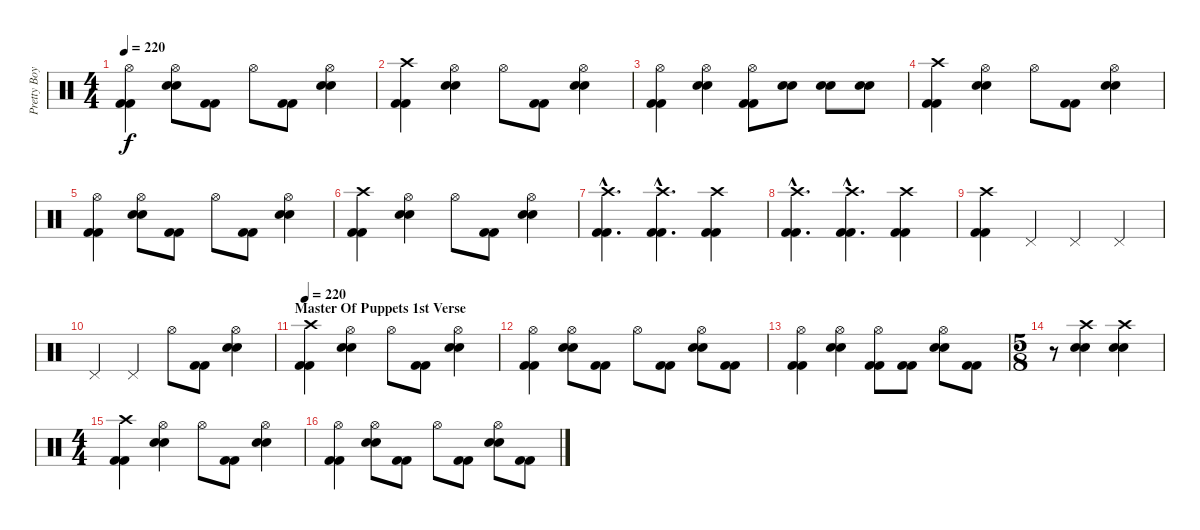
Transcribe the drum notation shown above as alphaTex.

\track ("Pretty Boy Geoff (Lars Drums)" "Pretty Boy") {instrument percussion}
\staff {score}
\articulation defaults
\ts (4 4)
\tempo 220
\clef neutral
\ks c
("Hi-Hat (open)" "Kick (hit) 2" "Kick (hit) 2").4{dy f} ("Hi-Hat (open)" "Electric Snare (hit)" "Electric Snare (hit)").8 ("Kick (hit) 2" "Kick (hit) 2").8 "Hi-Hat (open)".8 ("Kick (hit) 2" "Kick (hit) 2").8 ("Hi-Hat (open)" "Electric Snare (hit)" "Electric Snare (hit)").4 |
("Crash high (hit)" "Kick (hit) 2" "Kick (hit) 2").4 ("Hi-Hat (open)" "Electric Snare (hit)" "Electric Snare (hit)").4 "Hi-Hat (open)".8 ("Kick (hit) 2" "Kick (hit) 2").8 ("Hi-Hat (open)" "Electric Snare (hit)" "Electric Snare (hit)").4 |
("Hi-Hat (open)" "Kick (hit) 2" "Kick (hit) 2").4 ("Hi-Hat (open)" "Electric Snare (hit)" "Electric Snare (hit)").4 ("Hi-Hat (open)" "Kick (hit) 2" "Kick (hit) 2").8 ("Electric Snare (hit)" "Electric Snare (hit)").8 ("Electric Snare (hit)" "Electric Snare (hit)").8 ("Electric Snare (hit)" "Electric Snare (hit)").8 |
("Crash high (hit)" "Kick (hit) 2" "Kick (hit) 2").4 ("Hi-Hat (open)" "Electric Snare (hit)" "Electric Snare (hit)").4 "Hi-Hat (open)".8 ("Kick (hit) 2" "Kick (hit) 2").8 ("Hi-Hat (open)" "Electric Snare (hit)" "Electric Snare (hit)").4 |
("Hi-Hat (open)" "Kick (hit) 2" "Kick (hit) 2").4 ("Hi-Hat (open)" "Electric Snare (hit)" "Electric Snare (hit)").8 ("Kick (hit) 2" "Kick (hit) 2").8 "Hi-Hat (open)".8 ("Kick (hit) 2" "Kick (hit) 2").8 ("Hi-Hat (open)" "Electric Snare (hit)" "Electric Snare (hit)").4 |
("Crash high (hit)" "Kick (hit) 2" "Kick (hit) 2").4 ("Hi-Hat (open)" "Electric Snare (hit)" "Electric Snare (hit)").4 "Hi-Hat (open)".8 ("Kick (hit) 2" "Kick (hit) 2").8 ("Hi-Hat (open)" "Electric Snare (hit)" "Electric Snare (hit)").4 |
("Crash high (hit)"{hac} "Kick (hit) 2"{hac} "Kick (hit) 2"{hac}).4{d} ("Crash high (hit)"{hac} "Kick (hit) 2"{hac} "Kick (hit) 2"{hac}).4{d} ("Crash high (hit)" "Kick (hit) 2" "Kick (hit) 2").4 |
("Crash high (hit)"{hac} "Kick (hit) 2"{hac} "Kick (hit) 2"{hac}).4{d} ("Crash high (hit)"{hac} "Kick (hit) 2"{hac} "Kick (hit) 2"{hac}).4{d} ("Crash high (hit)" "Kick (hit) 2" "Kick (hit) 2").4 |
("Crash high (hit)" "Kick (hit) 2" "Kick (hit) 2").4 "Pedal Hi-Hat (hit)".4 "Pedal Hi-Hat (hit)".4 "Pedal Hi-Hat (hit)".4 |
"Pedal Hi-Hat (hit)".4 "Pedal Hi-Hat (hit)".4 "Hi-Hat (open)".8 ("Kick (hit) 2" "Kick (hit) 2").8 ("Hi-Hat (open)" "Electric Snare (hit)" "Electric Snare (hit)").4 |
\section ("" "Master Of Puppets 1st Verse")
\tempo 220
("Crash high (hit)" "Kick (hit) 2" "Kick (hit) 2").4 ("Hi-Hat (open)" "Electric Snare (hit)" "Electric Snare (hit)").4 "Hi-Hat (open)".8 ("Kick (hit) 2" "Kick (hit) 2").8 ("Hi-Hat (open)" "Electric Snare (hit)" "Electric Snare (hit)").4 |
("Hi-Hat (open)" "Kick (hit) 2" "Kick (hit) 2").4 ("Hi-Hat (open)" "Electric Snare (hit)" "Electric Snare (hit)").8 ("Kick (hit) 2" "Kick (hit) 2").8 "Hi-Hat (open)".8 ("Kick (hit) 2" "Kick (hit) 2").8 ("Hi-Hat (open)" "Electric Snare (hit)" "Electric Snare (hit)").8 ("Kick (hit) 2" "Kick (hit) 2").8 |
("Hi-Hat (open)" "Kick (hit) 2" "Kick (hit) 2").4 ("Hi-Hat (open)" "Electric Snare (hit)" "Electric Snare (hit)").4 ("Hi-Hat (open)" "Kick (hit) 2" "Kick (hit) 2").8 ("Kick (hit) 2" "Kick (hit) 2").8 ("Hi-Hat (open)" "Electric Snare (hit)" "Electric Snare (hit)").8 ("Kick (hit) 2" "Kick (hit) 2").8 |
\ts (5 8)
r.8 ("Crash high (hit)" "Electric Snare (hit)" "Electric Snare (hit)").4 ("Crash high (hit)" "Electric Snare (hit)" "Electric Snare (hit)").4 |
\ts (4 4)
("Crash high (hit)" "Kick (hit) 2" "Kick (hit) 2").4 ("Hi-Hat (open)" "Electric Snare (hit)" "Electric Snare (hit)").4 "Hi-Hat (open)".8 ("Kick (hit) 2" "Kick (hit) 2").8 ("Hi-Hat (open)" "Electric Snare (hit)" "Electric Snare (hit)").4 |
("Hi-Hat (open)" "Kick (hit) 2" "Kick (hit) 2").4 ("Hi-Hat (open)" "Electric Snare (hit)" "Electric Snare (hit)").8 ("Kick (hit) 2" "Kick (hit) 2").8 "Hi-Hat (open)".8 ("Kick (hit) 2" "Kick (hit) 2").8 ("Hi-Hat (open)" "Electric Snare (hit)" "Electric Snare (hit)").8 ("Kick (hit) 2" "Kick (hit) 2").8
